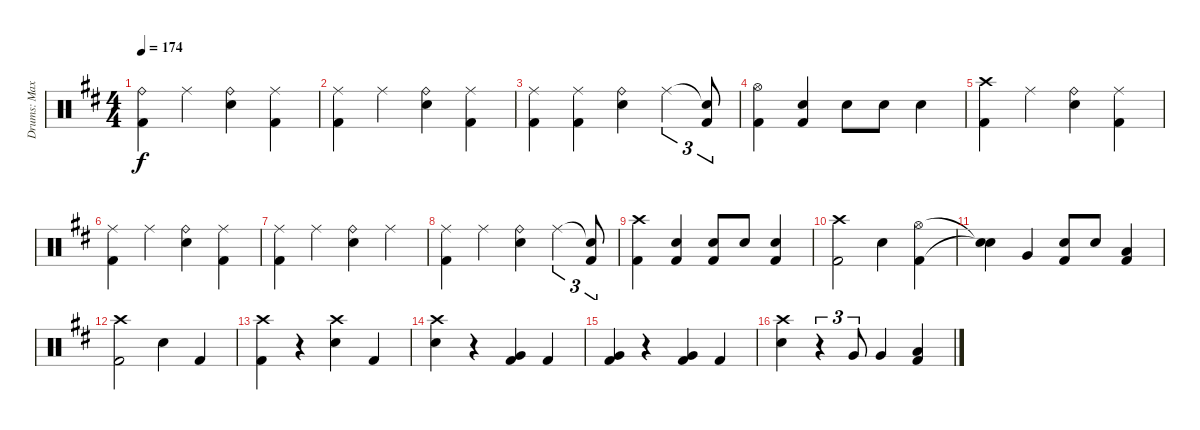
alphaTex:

\track ("Drums: Max" "Drums: Max") {instrument percussion}
\staff {score}
\articulation defaults
\ts (4 4)
\tempo 174
\clef neutral
\ks d
("Ride (bell)" "Kick (hit) 2").4{dy f} "Ride (middle)".4 ("Ride (bell)" "Electric Snare (hit)").4 ("Ride (middle)" "Kick (hit) 2").4 |
("Ride (middle)" "Kick (hit) 2").4 "Ride (middle)".4 ("Ride (bell)" "Electric Snare (hit)").4 ("Ride (middle)" "Kick (hit) 2").4 |
("Ride (middle)" "Kick (hit) 2").4 ("Ride (middle)" "Kick (hit) 2").4 ("Ride (bell)" "Electric Snare (hit)").4 "Ride (middle)".4{tu (3 2)} ("Snare (hit)"{t} "Kick (hit) 2").8{tu (3 2)} |
("Hi-Hat (open)" "Kick (hit) 2").4 ("Electric Snare (hit)" "Kick (hit) 2").4 "Electric Snare (hit)".8 "Electric Snare (hit)".8 "Electric Snare (hit)".4 |
("Crash high (hit)" "Kick (hit) 2").4 "Ride (middle)".4 ("Ride (bell)" "Electric Snare (hit)").4 ("Ride (middle)" "Kick (hit) 2").4 |
("Ride (middle)" "Kick (hit) 2").4 "Ride (middle)".4 ("Ride (bell)" "Electric Snare (hit)").4 ("Ride (middle)" "Kick (hit) 2").4 |
("Ride (middle)" "Kick (hit) 2").4 "Ride (middle)".4 ("Ride (bell)" "Electric Snare (hit)").4 "Ride (middle)".4 |
("Ride (middle)" "Kick (hit) 2").4 "Ride (middle)".4 ("Ride (bell)" "Electric Snare (hit)").4 "Ride (middle)".4{tu (3 2)} ("Snare (hit)"{t} "Kick (hit) 2").8{tu (3 2)} |
("Crash high (hit)" "Kick (hit) 2").4 ("Electric Snare (hit)" "Kick (hit) 2").4 ("Electric Snare (hit)" "Kick (hit) 2").8 "Electric Snare (hit)".8 ("Electric Snare (hit)" "Kick (hit) 2").4 |
("Crash high (hit)" "Kick (hit) 2").2 "Electric Snare (hit)".4 ("Hi-Hat (open)" "Kick (hit) 2").4 |
("Snare (hit)"{t} "Snare (hit)"{t}).4 "Very Low Tom (hit)".4 ("Electric Snare (hit)" "Kick (hit) 2").8 "Electric Snare (hit)".8 ("Low Tom (hit)" "Kick (hit) 2").4 |
("Crash high (hit)" "Kick (hit) 2").2 "Electric Snare (hit)".4 "Kick (hit) 2".4 |
("Crash high (hit)" "Kick (hit) 2").4 r.4 ("Crash high (hit)" "Electric Snare (hit)").4 "Kick (hit) 2".4 |
("Crash high (hit)" "Electric Snare (hit)").4 r.4 ("Very Low Tom (hit)" "Kick (hit) 2").4 "Kick (hit) 2".4 |
("Very Low Tom (hit)" "Kick (hit) 2").4 r.4 ("Very Low Tom (hit)" "Kick (hit) 2").4 "Kick (hit) 2".4 |
("Crash high (hit)" "Electric Snare (hit)").4 r.4{tu (3 2)} "Very Low Tom (hit)".8{tu (3 2)} "Very Low Tom (hit)".4 ("Low Floor Tom (hit)" "Kick (hit) 2").4
